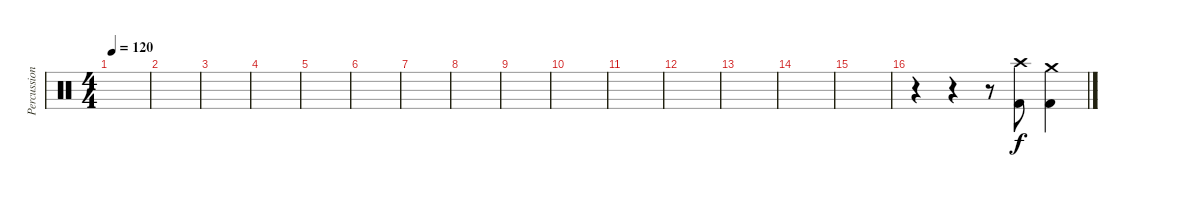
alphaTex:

\track ("Percussion" "Percussion") {instrument percussion}
\staff {score}
\articulation defaults
\ts (4 4)
\tempo 120
\clef neutral
\ks c
|
|
|
|
|
|
|
|
|
|
|
|
|
|
|
r.4 r.4 r.8 ("Crash high (hit)" "Kick (hit) 2").8 ("Crash medium (hit)" "Kick (hit) 2").4
